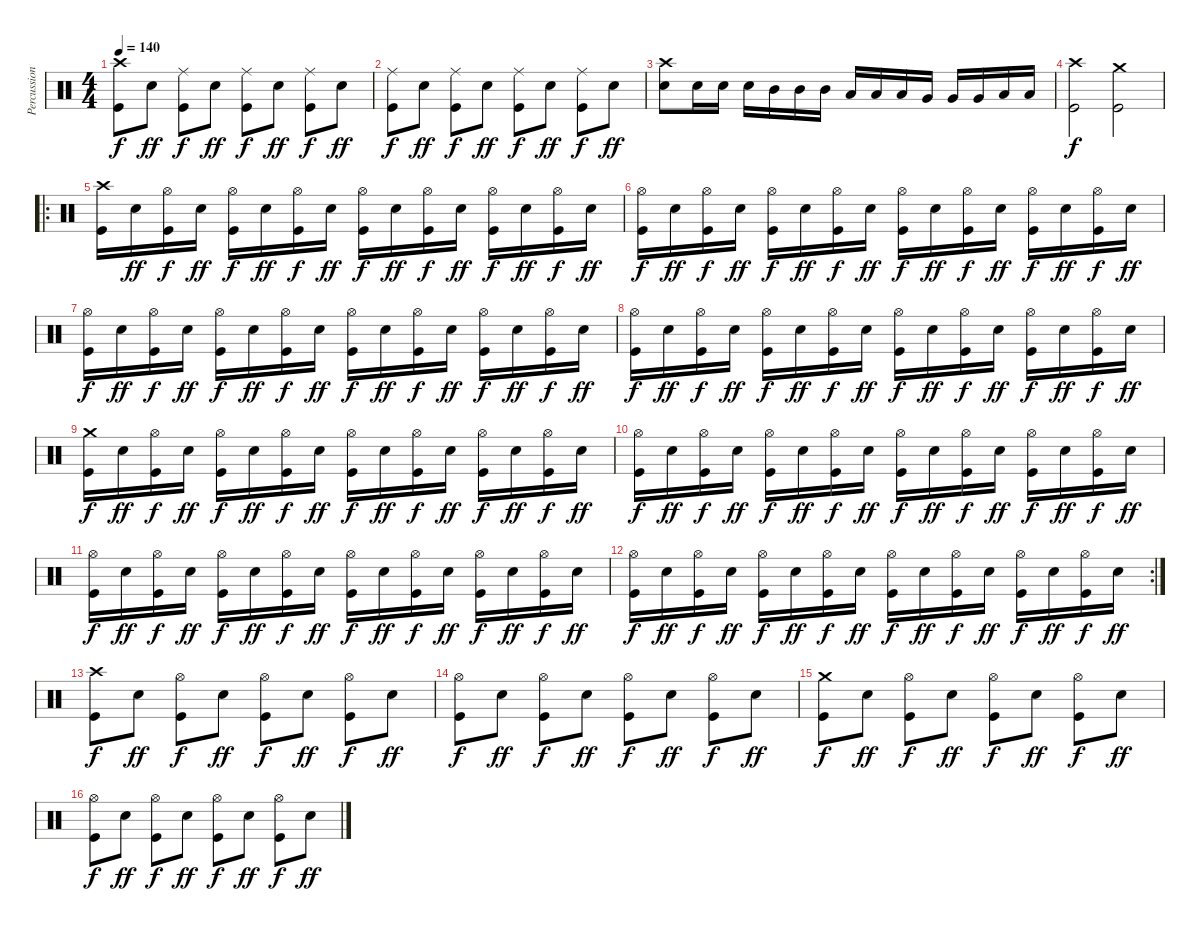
\track ("Percussions" "Percussion") {instrument percussion}
\staff {score}
\articulation defaults
\ts (4 4)
\tempo 140
\clef neutral
\ks c
("Crash high (hit)" "Kick (hit)").8{dy f} "Snare (hit) 2".8{dy ff} ("Ride (middle)" "Kick (hit)").8{dy f} "Snare (hit) 2".8{dy ff} ("Ride (middle)" "Kick (hit)").8{dy f} "Snare (hit) 2".8{dy ff} ("Ride (middle)" "Kick (hit)").8{dy f} "Snare (hit) 2".8{dy ff} |
("Ride (middle)" "Kick (hit)").8{dy f} "Snare (hit) 2".8{dy ff} ("Ride (middle)" "Kick (hit)").8{dy f} "Snare (hit) 2".8{dy ff} ("Ride (middle)" "Kick (hit)").8{dy f} "Snare (hit) 2".8{dy ff} ("Ride (middle)" "Kick (hit)").8{dy f} "Snare (hit) 2".8{dy ff} |
("Crash high (hit)" "Snare (hit) 2").8 "Snare (hit) 2".16 "Snare (hit) 2".16 "Snare (hit) 2".16 "Mid Tom (hit)".16 "Mid Tom (hit)".16 "Mid Tom (hit)".16 "Low Tom (hit)".16 "Low Tom (hit)".16 "Low Tom (hit)".16 "Very Low Tom (hit)".16 "Very Low Tom (hit)".16 "Very Low Tom (hit)".16 "Low Floor Tom (hit)".16 "Low Floor Tom (hit)".16 |
("Crash high (hit)" "Kick (hit)").2{dy f} ("Crash medium (hit)" "Kick (hit)").2 |
\ro
("Crash high (hit)" "Kick (hit)").16 "Snare (hit) 2".16{dy ff} ("Hi-Hat (open)" "Kick (hit)").16{dy f} "Snare (hit) 2".16{dy ff} ("Hi-Hat (open)" "Kick (hit)").16{dy f} "Snare (hit) 2".16{dy ff} ("Hi-Hat (open)" "Kick (hit)").16{dy f} "Snare (hit) 2".16{dy ff} ("Hi-Hat (open)" "Kick (hit)").16{dy f} "Snare (hit) 2".16{dy ff} ("Hi-Hat (open)" "Kick (hit)").16{dy f} "Snare (hit) 2".16{dy ff} ("Hi-Hat (open)" "Kick (hit)").16{dy f} "Snare (hit) 2".16{dy ff} ("Hi-Hat (open)" "Kick (hit)").16{dy f} "Snare (hit) 2".16{dy ff} |
("Hi-Hat (open)" "Kick (hit)").16{dy f} "Snare (hit) 2".16{dy ff} ("Hi-Hat (open)" "Kick (hit)").16{dy f} "Snare (hit) 2".16{dy ff} ("Hi-Hat (open)" "Kick (hit)").16{dy f} "Snare (hit) 2".16{dy ff} ("Hi-Hat (open)" "Kick (hit)").16{dy f} "Snare (hit) 2".16{dy ff} ("Hi-Hat (open)" "Kick (hit)").16{dy f} "Snare (hit) 2".16{dy ff} ("Hi-Hat (open)" "Kick (hit)").16{dy f} "Snare (hit) 2".16{dy ff} ("Hi-Hat (open)" "Kick (hit)").16{dy f} "Snare (hit) 2".16{dy ff} ("Hi-Hat (open)" "Kick (hit)").16{dy f} "Snare (hit) 2".16{dy ff} |
("Hi-Hat (open)" "Kick (hit)").16{dy f} "Snare (hit) 2".16{dy ff} ("Hi-Hat (open)" "Kick (hit)").16{dy f} "Snare (hit) 2".16{dy ff} ("Hi-Hat (open)" "Kick (hit)").16{dy f} "Snare (hit) 2".16{dy ff} ("Hi-Hat (open)" "Kick (hit)").16{dy f} "Snare (hit) 2".16{dy ff} ("Hi-Hat (open)" "Kick (hit)").16{dy f} "Snare (hit) 2".16{dy ff} ("Hi-Hat (open)" "Kick (hit)").16{dy f} "Snare (hit) 2".16{dy ff} ("Hi-Hat (open)" "Kick (hit)").16{dy f} "Snare (hit) 2".16{dy ff} ("Hi-Hat (open)" "Kick (hit)").16{dy f} "Snare (hit) 2".16{dy ff} |
("Hi-Hat (open)" "Kick (hit)").16{dy f} "Snare (hit) 2".16{dy ff} ("Hi-Hat (open)" "Kick (hit)").16{dy f} "Snare (hit) 2".16{dy ff} ("Hi-Hat (open)" "Kick (hit)").16{dy f} "Snare (hit) 2".16{dy ff} ("Hi-Hat (open)" "Kick (hit)").16{dy f} "Snare (hit) 2".16{dy ff} ("Hi-Hat (open)" "Kick (hit)").16{dy f} "Snare (hit) 2".16{dy ff} ("Hi-Hat (open)" "Kick (hit)").16{dy f} "Snare (hit) 2".16{dy ff} ("Hi-Hat (open)" "Kick (hit)").16{dy f} "Snare (hit) 2".16{dy ff} ("Hi-Hat (open)" "Kick (hit)").16{dy f} "Snare (hit) 2".16{dy ff} |
("Crash medium (hit)" "Kick (hit)").16{dy f} "Snare (hit) 2".16{dy ff} ("Hi-Hat (open)" "Kick (hit)").16{dy f} "Snare (hit) 2".16{dy ff} ("Hi-Hat (open)" "Kick (hit)").16{dy f} "Snare (hit) 2".16{dy ff} ("Hi-Hat (open)" "Kick (hit)").16{dy f} "Snare (hit) 2".16{dy ff} ("Hi-Hat (open)" "Kick (hit)").16{dy f} "Snare (hit) 2".16{dy ff} ("Hi-Hat (open)" "Kick (hit)").16{dy f} "Snare (hit) 2".16{dy ff} ("Hi-Hat (open)" "Kick (hit)").16{dy f} "Snare (hit) 2".16{dy ff} ("Hi-Hat (open)" "Kick (hit)").16{dy f} "Snare (hit) 2".16{dy ff} |
("Hi-Hat (open)" "Kick (hit)").16{dy f} "Snare (hit) 2".16{dy ff} ("Hi-Hat (open)" "Kick (hit)").16{dy f} "Snare (hit) 2".16{dy ff} ("Hi-Hat (open)" "Kick (hit)").16{dy f} "Snare (hit) 2".16{dy ff} ("Hi-Hat (open)" "Kick (hit)").16{dy f} "Snare (hit) 2".16{dy ff} ("Hi-Hat (open)" "Kick (hit)").16{dy f} "Snare (hit) 2".16{dy ff} ("Hi-Hat (open)" "Kick (hit)").16{dy f} "Snare (hit) 2".16{dy ff} ("Hi-Hat (open)" "Kick (hit)").16{dy f} "Snare (hit) 2".16{dy ff} ("Hi-Hat (open)" "Kick (hit)").16{dy f} "Snare (hit) 2".16{dy ff} |
("Hi-Hat (open)" "Kick (hit)").16{dy f} "Snare (hit) 2".16{dy ff} ("Hi-Hat (open)" "Kick (hit)").16{dy f} "Snare (hit) 2".16{dy ff} ("Hi-Hat (open)" "Kick (hit)").16{dy f} "Snare (hit) 2".16{dy ff} ("Hi-Hat (open)" "Kick (hit)").16{dy f} "Snare (hit) 2".16{dy ff} ("Hi-Hat (open)" "Kick (hit)").16{dy f} "Snare (hit) 2".16{dy ff} ("Hi-Hat (open)" "Kick (hit)").16{dy f} "Snare (hit) 2".16{dy ff} ("Hi-Hat (open)" "Kick (hit)").16{dy f} "Snare (hit) 2".16{dy ff} ("Hi-Hat (open)" "Kick (hit)").16{dy f} "Snare (hit) 2".16{dy ff} |
\rc 2
("Hi-Hat (open)" "Kick (hit)").16{dy f} "Snare (hit) 2".16{dy ff} ("Hi-Hat (open)" "Kick (hit)").16{dy f} "Snare (hit) 2".16{dy ff} ("Hi-Hat (open)" "Kick (hit)").16{dy f} "Snare (hit) 2".16{dy ff} ("Hi-Hat (open)" "Kick (hit)").16{dy f} "Snare (hit) 2".16{dy ff} ("Hi-Hat (open)" "Kick (hit)").16{dy f} "Snare (hit) 2".16{dy ff} ("Hi-Hat (open)" "Kick (hit)").16{dy f} "Snare (hit) 2".16{dy ff} ("Hi-Hat (open)" "Kick (hit)").16{dy f} "Snare (hit) 2".16{dy ff} ("Hi-Hat (open)" "Kick (hit)").16{dy f} "Snare (hit) 2".16{dy ff} |
("Crash high (hit)" "Kick (hit)").8{dy f} "Snare (hit) 2".8{dy ff} ("Hi-Hat (open)" "Kick (hit)").8{dy f} "Snare (hit) 2".8{dy ff} ("Hi-Hat (open)" "Kick (hit)").8{dy f} "Snare (hit) 2".8{dy ff} ("Hi-Hat (open)" "Kick (hit)").8{dy f} "Snare (hit) 2".8{dy ff} |
("Hi-Hat (open)" "Kick (hit)").8{dy f} "Snare (hit) 2".8{dy ff} ("Hi-Hat (open)" "Kick (hit)").8{dy f} "Snare (hit) 2".8{dy ff} ("Hi-Hat (open)" "Kick (hit)").8{dy f} "Snare (hit) 2".8{dy ff} ("Hi-Hat (open)" "Kick (hit)").8{dy f} "Snare (hit) 2".8{dy ff} |
("Crash medium (hit)" "Kick (hit)").8{dy f} "Snare (hit) 2".8{dy ff} ("Hi-Hat (open)" "Kick (hit)").8{dy f} "Snare (hit) 2".8{dy ff} ("Hi-Hat (open)" "Kick (hit)").8{dy f} "Snare (hit) 2".8{dy ff} ("Hi-Hat (open)" "Kick (hit)").8{dy f} "Snare (hit) 2".8{dy ff} |
("Hi-Hat (open)" "Kick (hit)").8{dy f} "Snare (hit) 2".8{dy ff} ("Hi-Hat (open)" "Kick (hit)").8{dy f} "Snare (hit) 2".8{dy ff} ("Hi-Hat (open)" "Kick (hit)").8{dy f} "Snare (hit) 2".8{dy ff} ("Hi-Hat (open)" "Kick (hit)").8{dy f} "Snare (hit) 2".8{dy ff}
